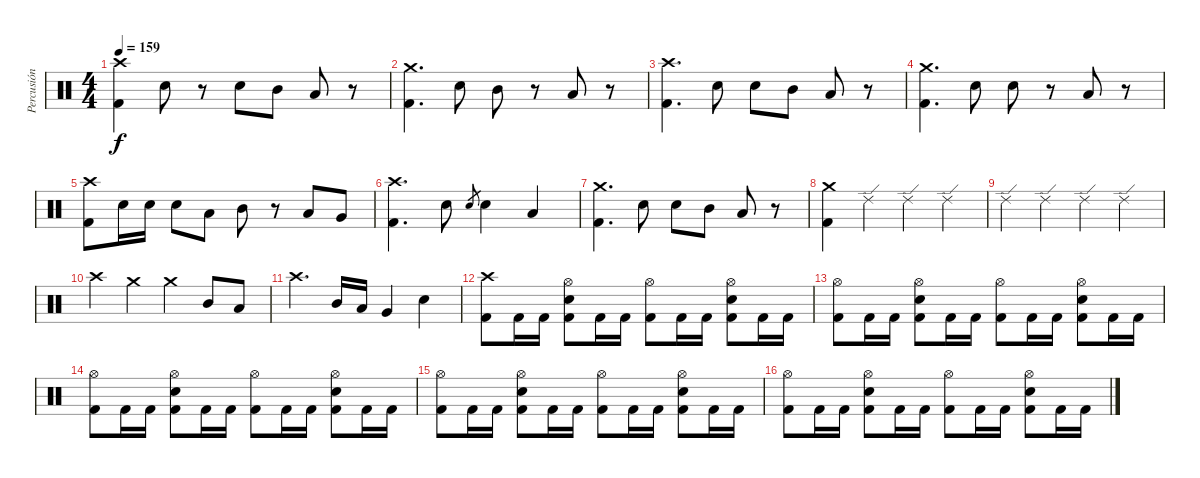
\track ("Percusión" "Percusión") {instrument percussion}
\staff {score}
\articulation defaults
\ts (4 4)
\tempo 159
\clef neutral
\ks c
("Crash high (hit)" "Kick (hit) 2").4{dy f} "Electric Snare (hit)".8 r.8 "Electric Snare (hit)".8 "Mid Tom (hit)".8 "Low Tom (hit)".8 r.8 |
("Crash medium (hit)" "Kick (hit) 2").4{d} "Electric Snare (hit)".8 "Mid Tom (hit)".8 r.8 "Low Tom (hit)".8 r.8 |
("Crash high (hit)" "Kick (hit) 2").4{d} "Electric Snare (hit)".8 "Electric Snare (hit)".8 "Mid Tom (hit)".8 "Low Tom (hit)".8 r.8 |
("Crash medium (hit)" "Kick (hit) 2").4{d} "Electric Snare (hit)".8 "Electric Snare (hit)".8 r.8 "Low Tom (hit)".8 r.8 |
("Crash high (hit)" "Kick (hit) 2").8 "Electric Snare (hit)".16 "Electric Snare (hit)".16 "Electric Snare (hit)".8 "Low Tom (hit)".8 "Mid Tom (hit)".8 r.8 "Low Tom (hit)".8 "Very Low Tom (hit)".8 |
("Crash high (hit)" "Kick (hit) 2").4{d} "Electric Snare (hit)".8 "Electric Snare (hit)".8{gr} "Electric Snare (hit)".4 "Low Tom (hit)".4 |
("Crash medium (hit)" "Kick (hit) 2").4{d} "Electric Snare (hit)".8 "Electric Snare (hit)".8 "Mid Tom (hit)".8 "Low Tom (hit)".8 r.8 |
("Crash medium (hit)" "Kick (hit) 2").4 "Ride (edge) 2".4 "Ride (edge) 2".4 "Ride (edge) 2".4 |
"Ride (edge) 2".4 "Ride (edge) 2".4 "Ride (edge) 2".4 "Ride (edge) 2".4 |
"Crash high (hit)".4 "Crash medium (hit)".4 "Crash medium (hit)".4 "Mid Tom (hit)".8 "Low Tom (hit)".8 |
"Crash high (hit)".4{d} "Mid Tom (hit)".16 "Low Tom (hit)".16 "Very Low Tom (hit)".4 "Electric Snare (hit)".4 |
("Crash high (hit)" "Kick (hit) 2").8 "Kick (hit) 2".16 "Kick (hit) 2".16 ("Hi-Hat (open)" "Electric Snare (hit)" "Kick (hit) 2").8 "Kick (hit) 2".16 "Kick (hit) 2".16 ("Hi-Hat (open)" "Kick (hit) 2").8 "Kick (hit) 2".16 "Kick (hit) 2".16 ("Hi-Hat (open)" "Electric Snare (hit)" "Kick (hit) 2").8 "Kick (hit) 2".16 "Kick (hit) 2".16 |
("Hi-Hat (open)" "Kick (hit) 2").8 "Kick (hit) 2".16 "Kick (hit) 2".16 ("Hi-Hat (open)" "Electric Snare (hit)" "Kick (hit) 2").8 "Kick (hit) 2".16 "Kick (hit) 2".16 ("Hi-Hat (open)" "Kick (hit) 2").8 "Kick (hit) 2".16 "Kick (hit) 2".16 ("Hi-Hat (open)" "Electric Snare (hit)" "Kick (hit) 2").8 "Kick (hit) 2".16 "Kick (hit) 2".16 |
("Hi-Hat (open)" "Kick (hit) 2").8 "Kick (hit) 2".16 "Kick (hit) 2".16 ("Hi-Hat (open)" "Electric Snare (hit)" "Kick (hit) 2").8 "Kick (hit) 2".16 "Kick (hit) 2".16 ("Hi-Hat (open)" "Kick (hit) 2").8 "Kick (hit) 2".16 "Kick (hit) 2".16 ("Hi-Hat (open)" "Electric Snare (hit)" "Kick (hit) 2").8 "Kick (hit) 2".16 "Kick (hit) 2".16 |
("Hi-Hat (open)" "Kick (hit) 2").8 "Kick (hit) 2".16 "Kick (hit) 2".16 ("Hi-Hat (open)" "Electric Snare (hit)" "Kick (hit) 2").8 "Kick (hit) 2".16 "Kick (hit) 2".16 ("Hi-Hat (open)" "Kick (hit) 2").8 "Kick (hit) 2".16 "Kick (hit) 2".16 ("Hi-Hat (open)" "Electric Snare (hit)" "Kick (hit) 2").8 "Kick (hit) 2".16 "Kick (hit) 2".16 |
("Hi-Hat (open)" "Kick (hit) 2").8 "Kick (hit) 2".16 "Kick (hit) 2".16 ("Hi-Hat (open)" "Electric Snare (hit)" "Kick (hit) 2").8 "Kick (hit) 2".16 "Kick (hit) 2".16 ("Hi-Hat (open)" "Kick (hit) 2").8 "Kick (hit) 2".16 "Kick (hit) 2".16 ("Hi-Hat (open)" "Electric Snare (hit)" "Kick (hit) 2").8 "Kick (hit) 2".16 "Kick (hit) 2".16
